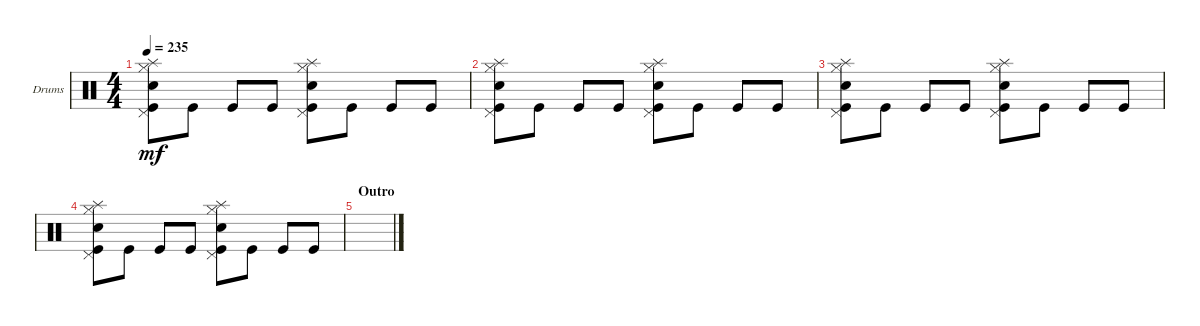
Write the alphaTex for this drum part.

\defaultSystemsLayout 4
\bracketExtendMode groupsimilarinstruments
\firstSystemTrackNameOrientation horizontal
\otherSystemsTrackNameOrientation horizontal
\track ("Drumkit" "Drums") {instrument percussion}
\staff {score}
\articulation defaults
\ts (4 4)
\tempo 235
\clef neutral
\scale
0.333333
\ks c
("Kick (hit)" "Snare (hit) 2" "Pedal Hi-Hat (hit)" "Hi-Hat (closed)" "Splash (hit)").8{dy mf} "Kick (hit)".8 "Kick (hit)".8 "Kick (hit)".8 ("Kick (hit)" "Pedal Hi-Hat (hit)" "Snare (hit) 2" "Hi-Hat (closed)" "Splash (hit)").8 "Kick (hit)".8 "Kick (hit)".8 "Kick (hit)".8 |
\scale
0.333333 ("Kick (hit)" "Snare (hit) 2" "Pedal Hi-Hat (hit)" "Hi-Hat (closed)" "Splash (hit)").8 "Kick (hit)".8 "Kick (hit)".8 "Kick (hit)".8 ("Kick (hit)" "Pedal Hi-Hat (hit)" "Snare (hit) 2" "Hi-Hat (closed)" "Splash (hit)").8 "Kick (hit)".8 "Kick (hit)".8 "Kick (hit)".8 |
\scale
0.333333 ("Kick (hit)" "Snare (hit) 2" "Pedal Hi-Hat (hit)" "Hi-Hat (closed)" "Splash (hit)").8 "Kick (hit)".8 "Kick (hit)".8 "Kick (hit)".8 ("Kick (hit)" "Pedal Hi-Hat (hit)" "Snare (hit) 2" "Hi-Hat (closed)" "Splash (hit)").8 "Kick (hit)".8 "Kick (hit)".8 "Kick (hit)".8 |
\scale
0.333333 ("Kick (hit)" "Snare (hit) 2" "Pedal Hi-Hat (hit)" "Hi-Hat (closed)" "Splash (hit)").8 "Kick (hit)".8 "Kick (hit)".8 "Kick (hit)".8 ("Kick (hit)" "Pedal Hi-Hat (hit)" "Snare (hit) 2" "Hi-Hat (closed)" "Splash (hit)").8 "Kick (hit)".8 "Kick (hit)".8 "Kick (hit)".8 |
\section ("" "Outro")
